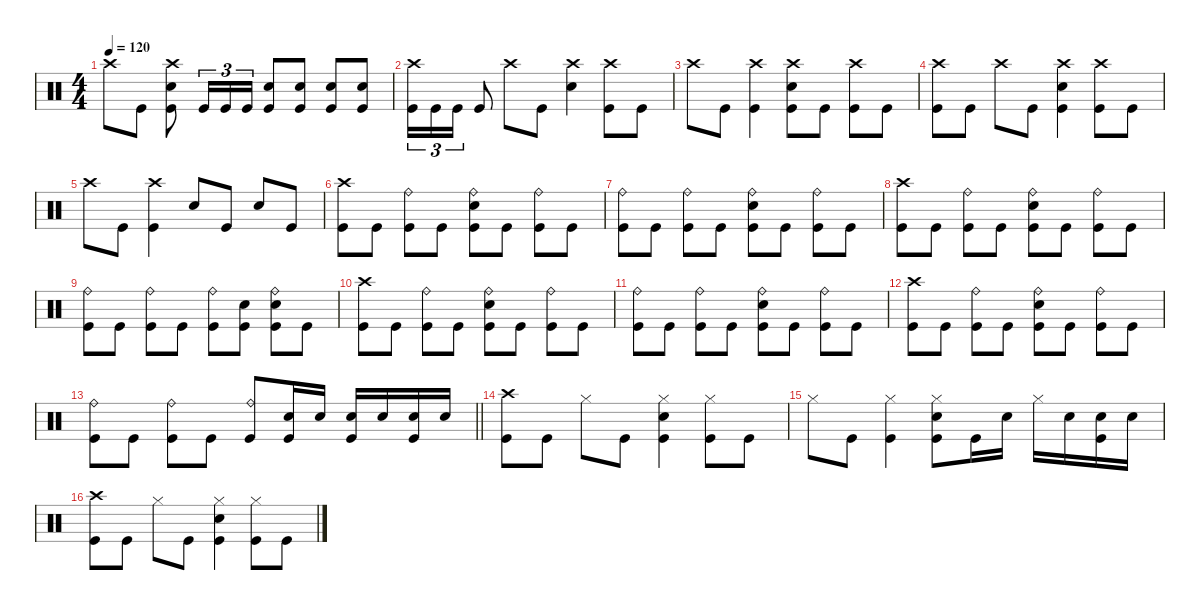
\defaultSystemsLayout 4
\hideDynamics
\bracketExtendMode nobrackets
\singleTrackTrackNamePolicy hidden
\multiTrackTrackNamePolicy hidden
\firstSystemTrackNameMode fullname
\firstSystemTrackNameOrientation horizontal
\otherSystemsTrackNameOrientation horizontal
\track ("Drums" "drm.") {instrument percussion}
\staff {score}
\articulation defaults
\ts (4 4)
\tempo 120
\clef neutral
\ks c "Crash high (hit)".8{dy f beam Down} "Kick (hit)".8{beam Down}
("Kick (hit)" "Snare (hit) 2" "Crash high (hit)").8{beam Down} "Kick (hit)".16{tu (3 2) beam Up} "Kick (hit)".16{tu (3 2) beam Up} "Kick (hit)".16{tu (3 2) beam Up} ("Kick (hit)" "Snare (hit) 2").8{beam Up} ("Kick (hit)" "Snare (hit) 2").8{beam Up} ("Kick (hit)" "Snare (hit) 2").8{beam Up} ("Kick (hit)" "Snare (hit) 2").8{beam Up} |
("Crash high (hit)" "Kick (hit)").16{tu (3 2) beam Down} "Kick (hit)".16{tu (3 2) beam Down} "Kick (hit)".16{tu (3 2) beam Down} "Kick (hit)".8{beam Up} "Crash high (hit)".8{beam Down} "Kick (hit)".8{beam Down} ("Snare (hit) 2" "Crash high (hit)").4{beam Down} ("Crash high (hit)" "Kick (hit)").8{beam Down} "Kick (hit)".8{beam Down} |
"Crash high (hit)".8{beam Down} "Kick (hit)".8{beam Down} ("Crash high (hit)" "Kick (hit)").4{beam Down} ("Snare (hit) 2" "Crash high (hit)" "Kick (hit)").8{beam Down} "Kick (hit)".8{beam Down} ("Kick (hit)" "Crash high (hit)").8{beam Down} "Kick (hit)".8{beam Down} |
("Kick (hit)" "Crash high (hit)").8{beam Down} "Kick (hit)".8{beam Down} "Crash high (hit)".8{beam Down} "Kick (hit)".8{beam Down} ("Kick (hit)" "Snare (hit) 2" "Crash high (hit)").4{beam Down} ("Kick (hit)" "Crash high (hit)").8{beam Down} "Kick (hit)".8{beam Down} |
"Crash high (hit)".8{beam Down} "Kick (hit)".8{beam Down} ("Kick (hit)" "Crash high (hit)").4{beam Down} "Snare (hit) 2".8{beam Up} "Kick (hit)".8{beam Up} "Snare (hit) 2".8{beam Up} "Kick (hit)".8{beam Up} |
("Crash high (hit)" "Kick (hit)").8{beam Down} "Kick (hit)".8{beam Down} ("Ride (bell)" "Kick (hit)").8{beam Down} "Kick (hit)".8{beam Down} ("Snare (hit) 2" "Ride (bell)" "Kick (hit)").8{beam Down} "Kick (hit)".8{beam Down} ("Ride (bell)" "Kick (hit)").8{beam Down} "Kick (hit)".8{beam Down} |
("Kick (hit)" "Ride (bell)").8{beam Down} "Kick (hit)".8{beam Down} ("Kick (hit)" "Ride (bell)").8{beam Down} "Kick (hit)".8{beam Down} ("Kick (hit)" "Snare (hit) 2" "Ride (bell)").8{beam Down} "Kick (hit)".8{beam Down} ("Kick (hit)" "Ride (bell)").8{beam Down} "Kick (hit)".8{beam Down} |
("Kick (hit)" "Crash high (hit)").8{beam Down} "Kick (hit)".8{beam Down} ("Kick (hit)" "Ride (bell)").8{beam Down} "Kick (hit)".8{beam Down} ("Kick (hit)" "Snare (hit) 2" "Ride (bell)").8{beam Down} "Kick (hit)".8{beam Down} ("Kick (hit)" "Ride (bell)").8{beam Down} "Kick (hit)".8{beam Down} |
("Ride (bell)" "Kick (hit)").8{beam Down} "Kick (hit)".8{beam Down} ("Ride (bell)" "Kick (hit)").8{beam Down} "Kick (hit)".8{beam Down} ("Ride (bell)" "Kick (hit)").8{beam Down} ("Snare (hit) 2" "Kick (hit)").8{beam Down} ("Snare (hit) 2" "Ride (bell)" "Kick (hit)").8{beam Down} "Kick (hit)".8{beam Down} |
("Kick (hit)" "Crash high (hit)").8{beam Down} "Kick (hit)".8{beam Down} ("Kick (hit)" "Ride (bell)").8{beam Down} "Kick (hit)".8{beam Down} ("Kick (hit)" "Snare (hit) 2" "Ride (bell)").8{beam Down} "Kick (hit)".8{beam Down} ("Kick (hit)" "Ride (bell)").8{beam Down} "Kick (hit)".8{beam Down} |
("Ride (bell)" "Kick (hit)").8{beam Down} "Kick (hit)".8{beam Down} ("Ride (bell)" "Kick (hit)").8{beam Down} "Kick (hit)".8{beam Down} ("Snare (hit) 2" "Ride (bell)" "Kick (hit)").8{beam Down} "Kick (hit)".8{beam Down} ("Ride (bell)" "Kick (hit)").8{beam Down} "Kick (hit)".8{beam Down} |
("Crash high (hit)" "Kick (hit)").8{beam Down} "Kick (hit)".8{beam Down} ("Ride (bell)" "Kick (hit)").8{beam Down} "Kick (hit)".8{beam Down} ("Snare (hit) 2" "Ride (bell)" "Kick (hit)").8{beam Down} "Kick (hit)".8{beam Down} ("Ride (bell)" "Kick (hit)").8{beam Down} "Kick (hit)".8{beam Down} |
\barLineRight lightlight
("Kick (hit)" "Ride (bell)").8{beam Down} "Kick (hit)".8{beam Down} ("Kick (hit)" "Ride (bell)").8{beam Down} "Kick (hit)".8{beam Down} ("Kick (hit)" "Ride (bell)").8{beam Up} ("Kick (hit)" "Snare (hit) 2").16{beam Up} "Snare (hit) 2".16{beam Up} ("Snare (hit) 2" "Kick (hit)").16{beam Up} "Snare (hit) 2".16{beam Up} ("Snare (hit) 2" "Kick (hit)").16{beam Up} "Snare (hit) 2".16{beam Up} |
("Crash high (hit)" "Kick (hit)").8{beam Down} "Kick (hit)".8{beam Down} "Hi-Hat (closed)".8{beam Down} "Kick (hit)".8{beam Down} ("Snare (hit) 2" "Hi-Hat (closed)" "Kick (hit)").4{beam Down} ("Hi-Hat (closed)" "Kick (hit)").8{beam Down} "Kick (hit)".8{beam Down} |
"Hi-Hat (closed)".8{beam Down} "Kick (hit)".8{beam Down} ("Kick (hit)" "Hi-Hat (closed)").4{beam Down} ("Kick (hit)" "Snare (hit) 2" "Hi-Hat (closed)").8{beam Down} "Kick (hit)".16{beam Down} "Snare (hit) 2".16{beam Down} "Hi-Hat (closed)".16{beam Down} "Snare (hit) 2".16{beam Down} ("Kick (hit)" "Snare (hit) 2").16{beam Down} "Snare (hit) 2".16{beam Down} |
("Kick (hit)" "Crash high (hit)").8{beam Down} "Kick (hit)".8{beam Down} "Hi-Hat (closed)".8{beam Down} "Kick (hit)".8{beam Down} ("Kick (hit)" "Snare (hit) 2" "Hi-Hat (closed)").4{beam Down} ("Kick (hit)" "Hi-Hat (closed)").8{beam Down} "Kick (hit)".8{beam Down}
